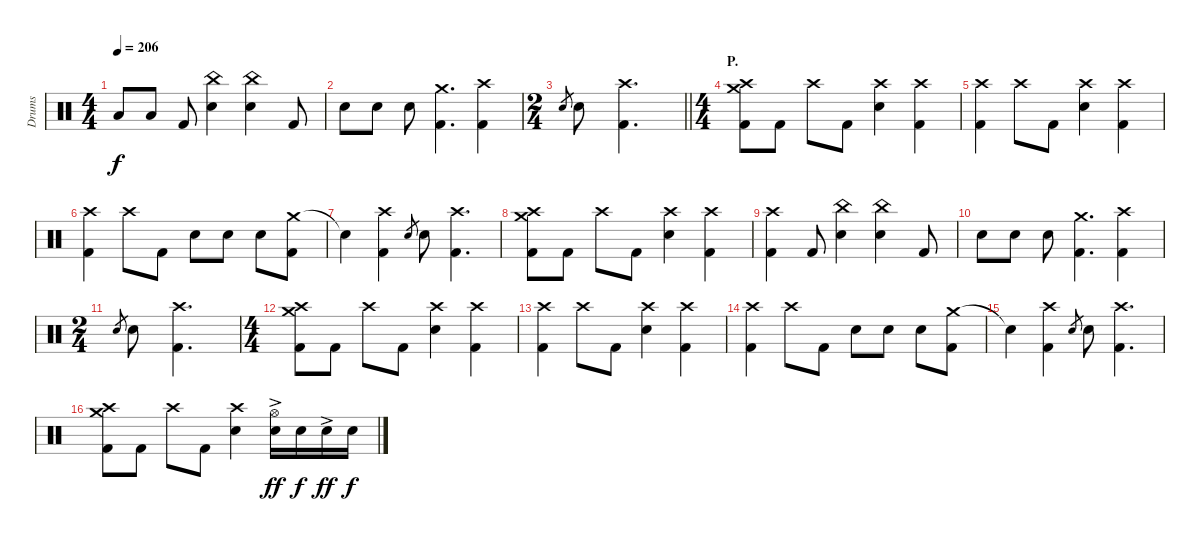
\track ("Drums" "Drums") {instrument percussion}
\staff {score}
\articulation defaults
\ts (4 4)
\tempo 206
\clef neutral
\ks c "Low Floor Tom (hit)".8{dy f} "Low Floor Tom (hit)".8 "Kick (hit) 2".8
("China (hit)" "Electric Snare (hit)").4 ("China (hit)" "Electric Snare (hit)").4 "Kick (hit) 2".8 |
"Electric Snare (hit)".8 "Electric Snare (hit)".8 "Electric Snare (hit)".8 ("Crash medium (hit)" "Kick (hit) 2").4{d} ("Crash high (hit)" "Kick (hit) 2").4 |
\ts (2 4)
\barLineRight lightlight "Electric Snare (hit)".8{gr} "Electric Snare (hit)".8
("Crash high (hit)" "Kick (hit) 2").4{d} |
\ts (4 4)
\section ("" "P.")
("Crash medium (hit)" "Crash high (hit)" "Kick (hit) 2").8 "Kick (hit) 2".8 "Crash high (hit)".8 "Kick (hit) 2".8 ("Crash high (hit)" "Electric Snare (hit)").4 ("Crash high (hit)" "Kick (hit) 2").4 |
("Crash high (hit)" "Kick (hit) 2").4 "Crash high (hit)".8 "Kick (hit) 2".8 ("Crash high (hit)" "Electric Snare (hit)").4 ("Crash high (hit)" "Kick (hit) 2").4 |
("Crash high (hit)" "Kick (hit) 2").4 "Crash high (hit)".8 "Kick (hit) 2".8 "Electric Snare (hit)".8 "Electric Snare (hit)".8 "Electric Snare (hit)".8 ("Crash medium (hit)" "Kick (hit) 2").8 |
"Snare (hit)"{t}.4 ("Crash high (hit)" "Kick (hit) 2").4 "Electric Snare (hit)".8{gr} "Electric Snare (hit)".8 ("Crash high (hit)" "Kick (hit) 2").4{d} |
("Crash medium (hit)" "Crash high (hit)" "Kick (hit) 2").8 "Kick (hit) 2".8 "Crash high (hit)".8 "Kick (hit) 2".8 ("Crash high (hit)" "Electric Snare (hit)").4 ("Crash high (hit)" "Kick (hit) 2").4 |
("Crash high (hit)" "Kick (hit) 2").4 "Kick (hit) 2".8 ("China (hit)" "Electric Snare (hit)").4 ("China (hit)" "Electric Snare (hit)").4 "Kick (hit) 2".8 |
"Electric Snare (hit)".8 "Electric Snare (hit)".8 "Electric Snare (hit)".8 ("Crash medium (hit)" "Kick (hit) 2").4{d} ("Crash high (hit)" "Kick (hit) 2").4 |
\ts (2 4)
"Electric Snare (hit)".8{gr} "Electric Snare (hit)".8 ("Crash high (hit)" "Kick (hit) 2").4{d} |
\ts (4 4)
("Crash medium (hit)" "Crash high (hit)" "Kick (hit) 2").8 "Kick (hit) 2".8 "Crash high (hit)".8 "Kick (hit) 2".8 ("Crash high (hit)" "Electric Snare (hit)").4 ("Crash high (hit)" "Kick (hit) 2").4 |
("Crash high (hit)" "Kick (hit) 2").4 "Crash high (hit)".8 "Kick (hit) 2".8 ("Crash high (hit)" "Electric Snare (hit)").4 ("Crash high (hit)" "Kick (hit) 2").4 |
("Crash high (hit)" "Kick (hit) 2").4 "Crash high (hit)".8 "Kick (hit) 2".8 "Electric Snare (hit)".8 "Electric Snare (hit)".8 "Electric Snare (hit)".8 ("Crash medium (hit)" "Kick (hit) 2").8 |
"Snare (hit)"{t}.4 ("Crash high (hit)" "Kick (hit) 2").4 "Electric Snare (hit)".8{gr} "Electric Snare (hit)".8 ("Crash high (hit)" "Kick (hit) 2").4{d} |
("Crash medium (hit)" "Crash high (hit)" "Kick (hit) 2").8 "Kick (hit) 2".8 "Crash high (hit)".8 "Kick (hit) 2".8 ("Crash high (hit)" "Electric Snare (hit)").4 ("Hi-Hat (open)" "Electric Snare (hit)"{ac}).16{dy ff} "Electric Snare (hit)".16{dy f} "Electric Snare (hit)"{ac}.16{dy ff} "Electric Snare (hit)".16{dy f}
